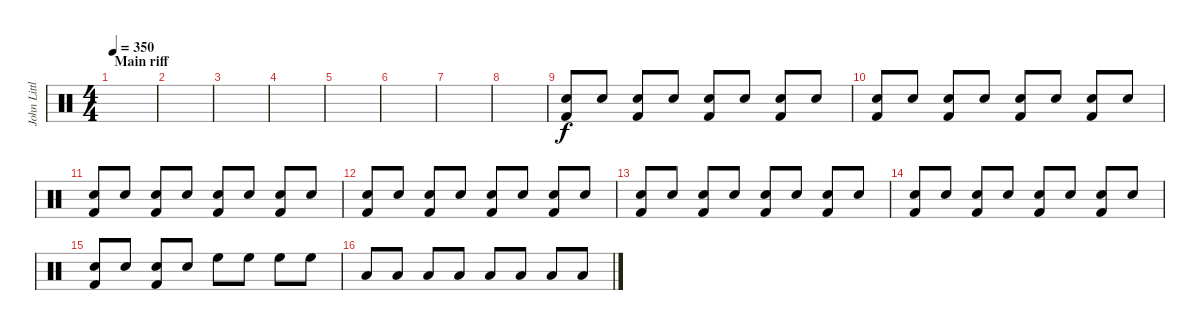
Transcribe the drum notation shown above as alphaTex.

\track ("John Littler - Drums" "John Littl") {instrument percussion}
\staff {score}
\articulation defaults
\ts (4 4)
\section ("" "Main riff")
\tempo 350
\clef neutral
\ks c
|
|
|
|
|
|
|
|
("Snare (hit) 2" "Kick (hit) 2").8 "Snare (hit) 2".8 ("Snare (hit) 2" "Kick (hit) 2").8 "Snare (hit) 2".8 ("Snare (hit) 2" "Kick (hit) 2").8 "Snare (hit) 2".8 ("Snare (hit) 2" "Kick (hit) 2").8 "Snare (hit) 2".8 |
("Snare (hit) 2" "Kick (hit) 2").8 "Snare (hit) 2".8 ("Snare (hit) 2" "Kick (hit) 2").8 "Snare (hit) 2".8 ("Snare (hit) 2" "Kick (hit) 2").8 "Snare (hit) 2".8 ("Snare (hit) 2" "Kick (hit) 2").8 "Snare (hit) 2".8 |
("Snare (hit) 2" "Kick (hit) 2").8 "Snare (hit) 2".8 ("Snare (hit) 2" "Kick (hit) 2").8 "Snare (hit) 2".8 ("Snare (hit) 2" "Kick (hit) 2").8 "Snare (hit) 2".8 ("Snare (hit) 2" "Kick (hit) 2").8 "Snare (hit) 2".8 |
("Snare (hit) 2" "Kick (hit) 2").8 "Snare (hit) 2".8 ("Snare (hit) 2" "Kick (hit) 2").8 "Snare (hit) 2".8 ("Snare (hit) 2" "Kick (hit) 2").8 "Snare (hit) 2".8 ("Snare (hit) 2" "Kick (hit) 2").8 "Snare (hit) 2".8 |
("Snare (hit) 2" "Kick (hit) 2").8 "Snare (hit) 2".8 ("Snare (hit) 2" "Kick (hit) 2").8 "Snare (hit) 2".8 ("Snare (hit) 2" "Kick (hit) 2").8 "Snare (hit) 2".8 ("Snare (hit) 2" "Kick (hit) 2").8 "Snare (hit) 2".8 |
("Snare (hit) 2" "Kick (hit) 2").8 "Snare (hit) 2".8 ("Snare (hit) 2" "Kick (hit) 2").8 "Snare (hit) 2".8 ("Snare (hit) 2" "Kick (hit) 2").8 "Snare (hit) 2".8 ("Snare (hit) 2" "Kick (hit) 2").8 "Snare (hit) 2".8 |
("Snare (hit) 2" "Kick (hit) 2").8 "Snare (hit) 2".8 ("Snare (hit) 2" "Kick (hit) 2").8 "Snare (hit) 2".8 "High Floor Tom (hit)".8 "High Floor Tom (hit)".8 "High Floor Tom (hit)".8 "High Floor Tom (hit)".8 |
"Low Tom (hit)".8 "Low Tom (hit)".8 "Low Tom (hit)".8 "Low Tom (hit)".8 "Low Floor Tom (hit)".8 "Low Floor Tom (hit)".8 "Low Floor Tom (hit)".8 "Low Floor Tom (hit)".8
